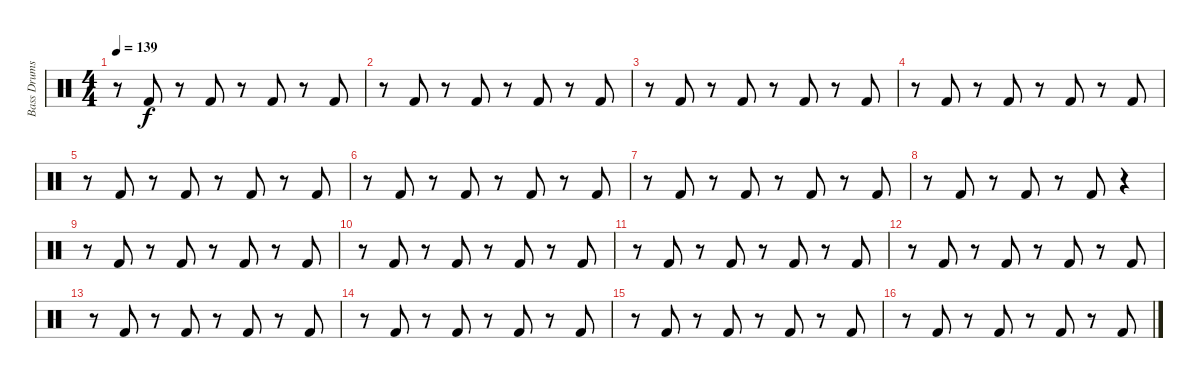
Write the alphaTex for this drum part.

\track ("Bass Drums" "Bass Drums") {instrument percussion}
\staff {score}
\articulation defaults
\ts (4 4)
\tempo 139
\clef neutral
\ks c
r.8{dy f} "Kick (hit) 2".8 r.8 "Kick (hit) 2".8 r.8 "Kick (hit) 2".8 r.8 "Kick (hit) 2".8 |
r.8 "Kick (hit) 2".8 r.8 "Kick (hit) 2".8 r.8 "Kick (hit) 2".8 r.8 "Kick (hit) 2".8 |
r.8 "Kick (hit) 2".8 r.8 "Kick (hit) 2".8 r.8 "Kick (hit) 2".8 r.8 "Kick (hit) 2".8 |
r.8 "Kick (hit) 2".8 r.8 "Kick (hit) 2".8 r.8 "Kick (hit) 2".8 r.8 "Kick (hit) 2".8 |
r.8 "Kick (hit) 2".8 r.8 "Kick (hit) 2".8 r.8 "Kick (hit) 2".8 r.8 "Kick (hit) 2".8 |
r.8 "Kick (hit) 2".8 r.8 "Kick (hit) 2".8 r.8 "Kick (hit) 2".8 r.8 "Kick (hit) 2".8 |
r.8 "Kick (hit) 2".8 r.8 "Kick (hit) 2".8 r.8 "Kick (hit) 2".8 r.8 "Kick (hit) 2".8 |
r.8 "Kick (hit) 2".8 r.8 "Kick (hit) 2".8 r.8 "Kick (hit) 2".8 r.4 |
r.8 "Kick (hit) 2".8 r.8 "Kick (hit) 2".8 r.8 "Kick (hit) 2".8 r.8 "Kick (hit) 2".8 |
r.8 "Kick (hit) 2".8 r.8 "Kick (hit) 2".8 r.8 "Kick (hit) 2".8 r.8 "Kick (hit) 2".8 |
r.8 "Kick (hit) 2".8 r.8 "Kick (hit) 2".8 r.8 "Kick (hit) 2".8 r.8 "Kick (hit) 2".8 |
r.8 "Kick (hit) 2".8 r.8 "Kick (hit) 2".8 r.8 "Kick (hit) 2".8 r.8 "Kick (hit) 2".8 |
r.8 "Kick (hit) 2".8 r.8 "Kick (hit) 2".8 r.8 "Kick (hit) 2".8 r.8 "Kick (hit) 2".8 |
r.8 "Kick (hit) 2".8 r.8 "Kick (hit) 2".8 r.8 "Kick (hit) 2".8 r.8 "Kick (hit) 2".8 |
r.8 "Kick (hit) 2".8 r.8 "Kick (hit) 2".8 r.8 "Kick (hit) 2".8 r.8 "Kick (hit) 2".8 |
r.8 "Kick (hit) 2".8 r.8 "Kick (hit) 2".8 r.8 "Kick (hit) 2".8 r.8 "Kick (hit) 2".8
